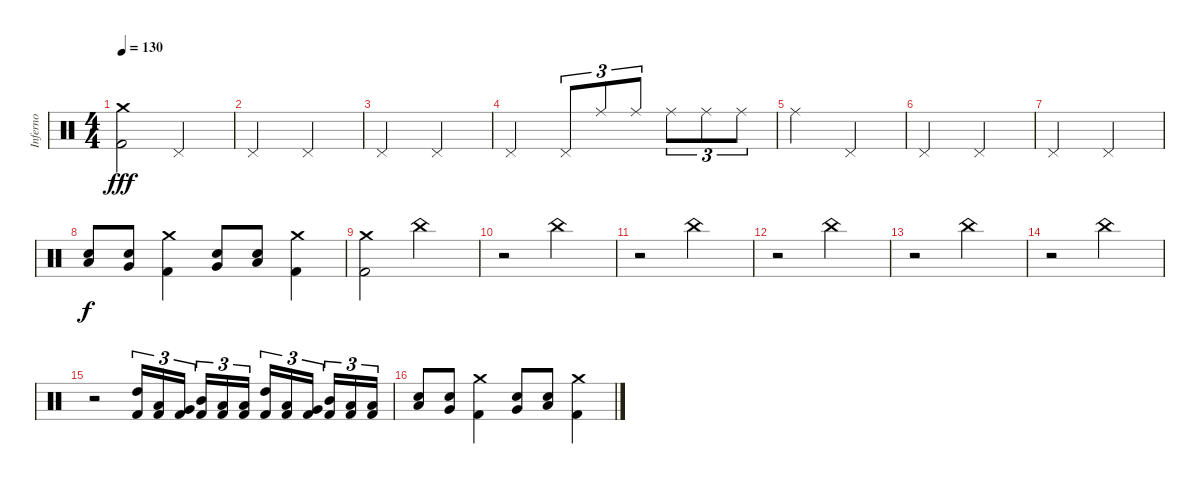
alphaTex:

\track ("Inferno" "Inferno") {instrument percussion}
\staff {score}
\articulation defaults
\ts (4 4)
\tempo 130
\clef neutral
\ks c
("Crash medium (hit)" "Kick (hit) 2").2{dy fff} "Pedal Hi-Hat (hit)".2 |
"Pedal Hi-Hat (hit)".2 "Pedal Hi-Hat (hit)".2 |
"Pedal Hi-Hat (hit)".2 "Pedal Hi-Hat (hit)".2 |
"Pedal Hi-Hat (hit)".2 "Pedal Hi-Hat (hit)".8{tu (3 2)} "Ride (middle)".8{tu (3 2)} "Ride (middle)".8{tu (3 2)} "Ride (middle)".8{tu (3 2)} "Ride (middle)".8{tu (3 2)} "Ride (middle)".8{tu (3 2)} |
"Ride (middle)".2 "Pedal Hi-Hat (hit)".2 |
"Pedal Hi-Hat (hit)".2 "Pedal Hi-Hat (hit)".2 |
"Pedal Hi-Hat (hit)".2 "Pedal Hi-Hat (hit)".2 |
("Low Tom (hit)" "Snare (hit) 2").8{dy f} ("Very Low Tom (hit)" "Snare (hit) 2").8 ("Crash medium (hit)" "Kick (hit) 2").4 ("Very Low Tom (hit)" "Snare (hit) 2").8 ("Low Floor Tom (hit)" "Snare (hit) 2").8 ("Crash medium (hit)" "Kick (hit) 2").4 |
("Crash medium (hit)" "Kick (hit) 2").2 "China (hit)".2 |
r.2 "China (hit)".2 |
r.2 "China (hit)".2 |
r.2 "China (hit)".2 |
r.2 "China (hit)".2 |
r.2 "China (hit)".2 |
r.2 ("High Tom (hit)" "Kick (hit) 2").16{tu (3 2)} ("Low Tom (hit)" "Kick (hit) 2").16{tu (3 2)} ("Very Low Tom (hit)" "Kick (hit) 2").16{tu (3 2) beam splitsecondary} ("Mid Tom (hit)" "Kick (hit) 2").16{tu (3 2)} ("Low Tom (hit)" "Kick (hit) 2").16{tu (3 2)} ("Low Floor Tom (hit)" "Kick (hit) 2").16{tu (3 2)} ("High Tom (hit)" "Kick (hit) 2").16{tu (3 2)} ("Low Tom (hit)" "Kick (hit) 2").16{tu (3 2)} ("Very Low Tom (hit)" "Kick (hit) 2").16{tu (3 2) beam splitsecondary} ("Mid Tom (hit)" "Kick (hit) 2").16{tu (3 2)} ("Low Tom (hit)" "Kick (hit) 2").16{tu (3 2)} ("Low Floor Tom (hit)" "Kick (hit) 2").16{tu (3 2)} |
("Low Tom (hit)" "Snare (hit) 2").8 ("Very Low Tom (hit)" "Snare (hit) 2").8 ("Crash medium (hit)" "Kick (hit) 2").4 ("Very Low Tom (hit)" "Snare (hit) 2").8 ("Low Floor Tom (hit)" "Snare (hit) 2").8 ("Crash medium (hit)" "Kick (hit) 2").4
